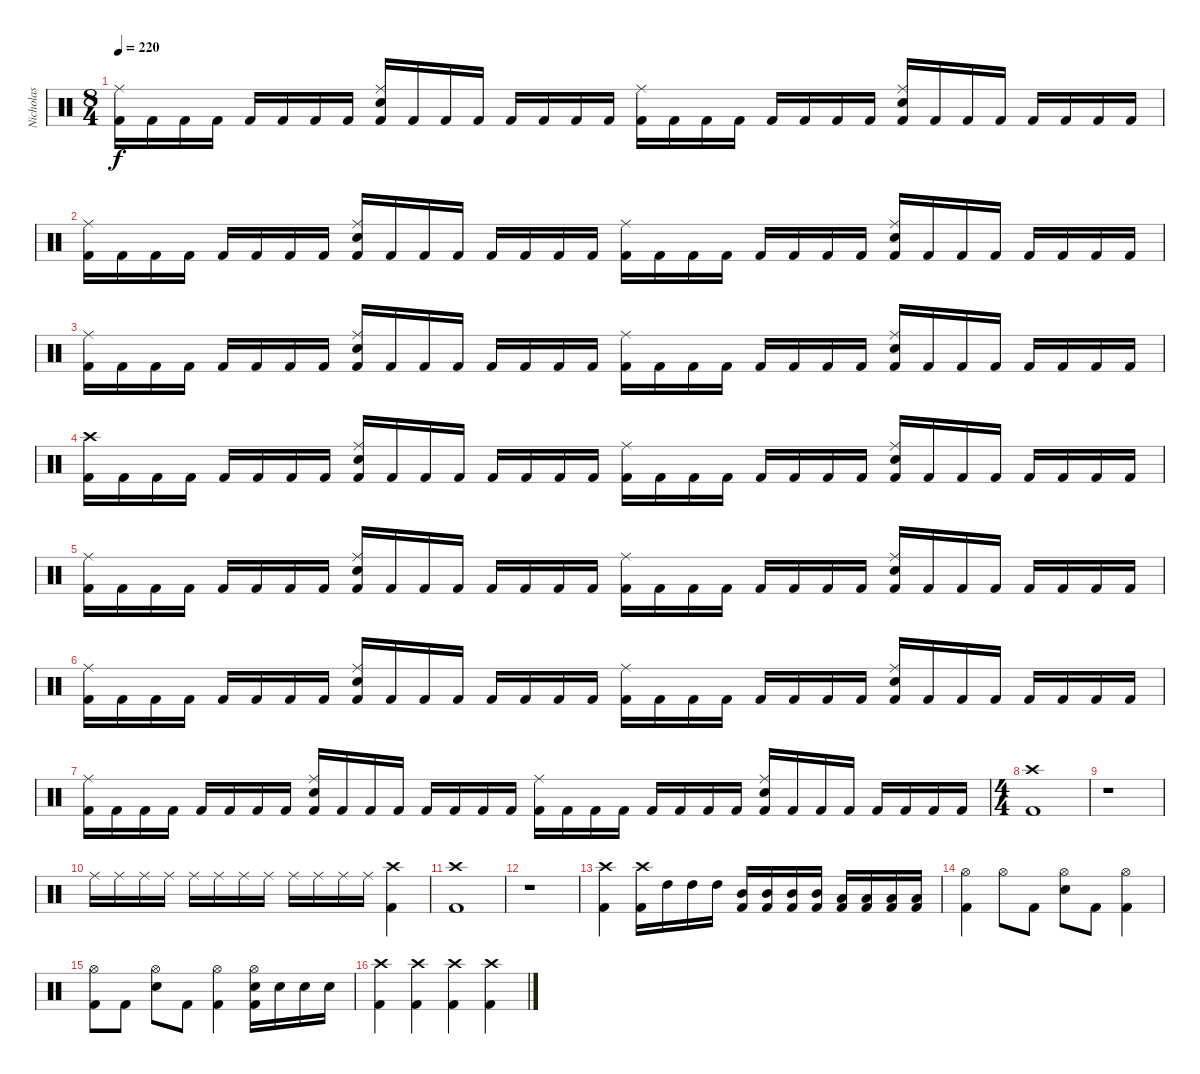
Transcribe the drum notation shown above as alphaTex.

\track ("Nicholas" "Nicholas") {instrument percussion}
\staff {score}
\articulation defaults
\ts (8 4)
\tempo 220
\clef neutral
\ks c
("Kick (hit) 2" "Ride (middle)").16{dy f} "Kick (hit) 2".16 "Kick (hit) 2".16 "Kick (hit) 2".16 "Kick (hit) 2".16 "Kick (hit) 2".16 "Kick (hit) 2".16 "Kick (hit) 2".16 ("Kick (hit) 2" "Snare (hit) 2" "Ride (middle)").16 "Kick (hit) 2".16 "Kick (hit) 2".16 "Kick (hit) 2".16 "Kick (hit) 2".16 "Kick (hit) 2".16 "Kick (hit) 2".16 "Kick (hit) 2".16 ("Kick (hit) 2" "Ride (middle)").16 "Kick (hit) 2".16 "Kick (hit) 2".16 "Kick (hit) 2".16 "Kick (hit) 2".16 "Kick (hit) 2".16 "Kick (hit) 2".16 "Kick (hit) 2".16 ("Kick (hit) 2" "Snare (hit) 2" "Ride (middle)").16 "Kick (hit) 2".16 "Kick (hit) 2".16 "Kick (hit) 2".16 "Kick (hit) 2".16 "Kick (hit) 2".16 "Kick (hit) 2".16 "Kick (hit) 2".16 |
("Kick (hit) 2" "Ride (middle)").16 "Kick (hit) 2".16 "Kick (hit) 2".16 "Kick (hit) 2".16 "Kick (hit) 2".16 "Kick (hit) 2".16 "Kick (hit) 2".16 "Kick (hit) 2".16 ("Kick (hit) 2" "Snare (hit) 2" "Ride (middle)").16 "Kick (hit) 2".16 "Kick (hit) 2".16 "Kick (hit) 2".16 "Kick (hit) 2".16 "Kick (hit) 2".16 "Kick (hit) 2".16 "Kick (hit) 2".16 ("Kick (hit) 2" "Ride (middle)").16 "Kick (hit) 2".16 "Kick (hit) 2".16 "Kick (hit) 2".16 "Kick (hit) 2".16 "Kick (hit) 2".16 "Kick (hit) 2".16 "Kick (hit) 2".16 ("Kick (hit) 2" "Snare (hit) 2" "Ride (middle)").16 "Kick (hit) 2".16 "Kick (hit) 2".16 "Kick (hit) 2".16 "Kick (hit) 2".16 "Kick (hit) 2".16 "Kick (hit) 2".16 "Kick (hit) 2".16 |
("Kick (hit) 2" "Ride (middle)").16 "Kick (hit) 2".16 "Kick (hit) 2".16 "Kick (hit) 2".16 "Kick (hit) 2".16 "Kick (hit) 2".16 "Kick (hit) 2".16 "Kick (hit) 2".16 ("Kick (hit) 2" "Snare (hit) 2" "Ride (middle)").16 "Kick (hit) 2".16 "Kick (hit) 2".16 "Kick (hit) 2".16 "Kick (hit) 2".16 "Kick (hit) 2".16 "Kick (hit) 2".16 "Kick (hit) 2".16 ("Kick (hit) 2" "Ride (middle)").16 "Kick (hit) 2".16 "Kick (hit) 2".16 "Kick (hit) 2".16 "Kick (hit) 2".16 "Kick (hit) 2".16 "Kick (hit) 2".16 "Kick (hit) 2".16 ("Kick (hit) 2" "Snare (hit) 2" "Ride (middle)").16 "Kick (hit) 2".16 "Kick (hit) 2".16 "Kick (hit) 2".16 "Kick (hit) 2".16 "Kick (hit) 2".16 "Kick (hit) 2".16 "Kick (hit) 2".16 |
("Kick (hit) 2" "Crash high (hit)").16 "Kick (hit) 2".16 "Kick (hit) 2".16 "Kick (hit) 2".16 "Kick (hit) 2".16 "Kick (hit) 2".16 "Kick (hit) 2".16 "Kick (hit) 2".16 ("Kick (hit) 2" "Snare (hit) 2" "Ride (middle)").16 "Kick (hit) 2".16 "Kick (hit) 2".16 "Kick (hit) 2".16 "Kick (hit) 2".16 "Kick (hit) 2".16 "Kick (hit) 2".16 "Kick (hit) 2".16 ("Kick (hit) 2" "Ride (middle)").16 "Kick (hit) 2".16 "Kick (hit) 2".16 "Kick (hit) 2".16 "Kick (hit) 2".16 "Kick (hit) 2".16 "Kick (hit) 2".16 "Kick (hit) 2".16 ("Kick (hit) 2" "Snare (hit) 2" "Ride (middle)").16 "Kick (hit) 2".16 "Kick (hit) 2".16 "Kick (hit) 2".16 "Kick (hit) 2".16 "Kick (hit) 2".16 "Kick (hit) 2".16 "Kick (hit) 2".16 |
("Kick (hit) 2" "Ride (middle)").16 "Kick (hit) 2".16 "Kick (hit) 2".16 "Kick (hit) 2".16 "Kick (hit) 2".16 "Kick (hit) 2".16 "Kick (hit) 2".16 "Kick (hit) 2".16 ("Kick (hit) 2" "Snare (hit) 2" "Ride (middle)").16 "Kick (hit) 2".16 "Kick (hit) 2".16 "Kick (hit) 2".16 "Kick (hit) 2".16 "Kick (hit) 2".16 "Kick (hit) 2".16 "Kick (hit) 2".16 ("Kick (hit) 2" "Ride (middle)").16 "Kick (hit) 2".16 "Kick (hit) 2".16 "Kick (hit) 2".16 "Kick (hit) 2".16 "Kick (hit) 2".16 "Kick (hit) 2".16 "Kick (hit) 2".16 ("Kick (hit) 2" "Snare (hit) 2" "Ride (middle)").16 "Kick (hit) 2".16 "Kick (hit) 2".16 "Kick (hit) 2".16 "Kick (hit) 2".16 "Kick (hit) 2".16 "Kick (hit) 2".16 "Kick (hit) 2".16 |
("Kick (hit) 2" "Ride (middle)").16 "Kick (hit) 2".16 "Kick (hit) 2".16 "Kick (hit) 2".16 "Kick (hit) 2".16 "Kick (hit) 2".16 "Kick (hit) 2".16 "Kick (hit) 2".16 ("Kick (hit) 2" "Snare (hit) 2" "Ride (middle)").16 "Kick (hit) 2".16 "Kick (hit) 2".16 "Kick (hit) 2".16 "Kick (hit) 2".16 "Kick (hit) 2".16 "Kick (hit) 2".16 "Kick (hit) 2".16 ("Kick (hit) 2" "Ride (middle)").16 "Kick (hit) 2".16 "Kick (hit) 2".16 "Kick (hit) 2".16 "Kick (hit) 2".16 "Kick (hit) 2".16 "Kick (hit) 2".16 "Kick (hit) 2".16 ("Kick (hit) 2" "Snare (hit) 2" "Ride (middle)").16 "Kick (hit) 2".16 "Kick (hit) 2".16 "Kick (hit) 2".16 "Kick (hit) 2".16 "Kick (hit) 2".16 "Kick (hit) 2".16 "Kick (hit) 2".16 |
("Kick (hit) 2" "Ride (middle)").16 "Kick (hit) 2".16 "Kick (hit) 2".16 "Kick (hit) 2".16 "Kick (hit) 2".16 "Kick (hit) 2".16 "Kick (hit) 2".16 "Kick (hit) 2".16 ("Kick (hit) 2" "Snare (hit) 2" "Ride (middle)").16 "Kick (hit) 2".16 "Kick (hit) 2".16 "Kick (hit) 2".16 "Kick (hit) 2".16 "Kick (hit) 2".16 "Kick (hit) 2".16 "Kick (hit) 2".16 ("Kick (hit) 2" "Ride (middle)").16 "Kick (hit) 2".16 "Kick (hit) 2".16 "Kick (hit) 2".16 "Kick (hit) 2".16 "Kick (hit) 2".16 "Kick (hit) 2".16 "Kick (hit) 2".16 ("Kick (hit) 2" "Snare (hit) 2" "Ride (middle)").16 "Kick (hit) 2".16 "Kick (hit) 2".16 "Kick (hit) 2".16 "Kick (hit) 2".16 "Kick (hit) 2".16 "Kick (hit) 2".16 "Kick (hit) 2".16 |
\ts (4 4)
("Kick (hit) 2" "Crash high (hit)").1 |
r.1 |
"Ride (middle)".16 "Ride (middle)".16 "Ride (middle)".16 "Ride (middle)".16 "Ride (middle)".16 "Ride (middle)".16 "Ride (middle)".16 "Ride (middle)".16 "Ride (middle)".16 "Ride (middle)".16 "Ride (middle)".16 "Ride (middle)".16 ("Kick (hit) 2" "Crash high (hit)").4 |
("Kick (hit) 2" "Crash high (hit)").1 |
r.1 |
("Kick (hit) 2" "Crash high (hit)").4 ("Kick (hit) 2" "Crash high (hit)").16 "High Tom (hit)".16 "High Tom (hit)".16 "High Tom (hit)".16 ("Kick (hit) 2" "Mid Tom (hit)").16 ("Kick (hit) 2" "Mid Tom (hit)").16 ("Kick (hit) 2" "Mid Tom (hit)").16 ("Kick (hit) 2" "Mid Tom (hit)").16 ("Kick (hit) 2" "Low Tom (hit)").16 ("Kick (hit) 2" "Low Tom (hit)").16 ("Kick (hit) 2" "Low Tom (hit)").16 ("Kick (hit) 2" "Low Tom (hit)").16 |
("Kick (hit) 2" "Hi-Hat (open)").4 "Hi-Hat (open)".8 "Kick (hit) 2".8 ("Snare (hit) 2" "Hi-Hat (open)").8 "Kick (hit) 2".8 ("Kick (hit) 2" "Hi-Hat (open)").4 |
("Kick (hit) 2" "Hi-Hat (open)").8 "Kick (hit) 2".8 ("Snare (hit) 2" "Hi-Hat (open)").8 "Kick (hit) 2".8 ("Kick (hit) 2" "Hi-Hat (open)").4 ("Kick (hit) 2" "Snare (hit) 2" "Hi-Hat (open)").16 "Snare (hit) 2".16 "Snare (hit) 2".16 "Snare (hit) 2".16 |
("Kick (hit) 2" "Crash high (hit)").4 ("Kick (hit) 2" "Crash high (hit)").4 ("Kick (hit) 2" "Crash high (hit)").4 ("Kick (hit) 2" "Crash high (hit)").4
